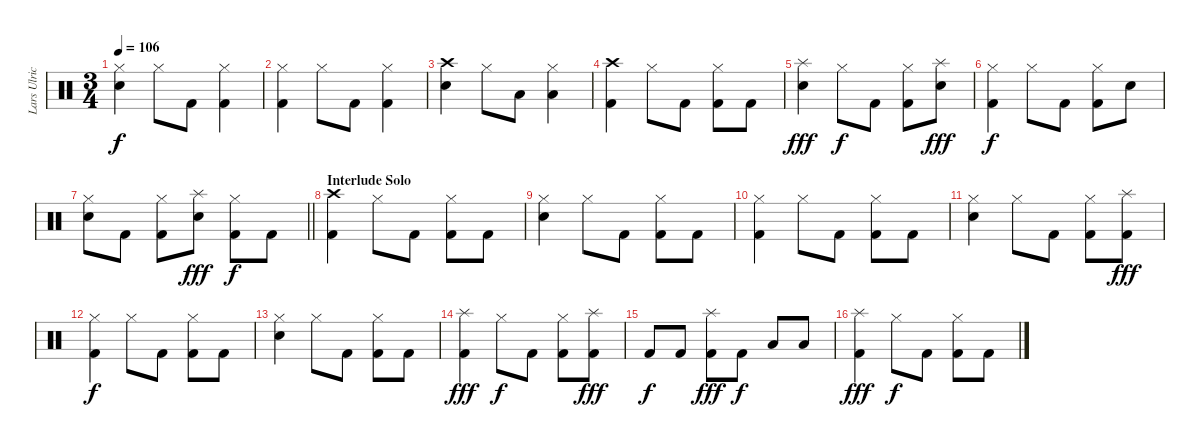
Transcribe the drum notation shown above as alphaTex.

\track ("Lars Ulrich" "Lars Ulric") {instrument percussion}
\staff {score}
\articulation defaults
\ts (3 4)
\tempo 106
\clef neutral
\ks c
("Hi-Hat (closed)" "Electric Snare (hit)").4{dy f} "Hi-Hat (closed)".8 "Kick (hit) 2".8 ("Hi-Hat (closed)" "Kick (hit) 2").4 |
("Hi-Hat (closed)" "Kick (hit) 2").4 "Hi-Hat (closed)".8 "Kick (hit) 2".8 ("Hi-Hat (closed)" "Kick (hit) 2").4 |
("Crash high (hit)" "Electric Snare (hit)").4 "Hi-Hat (closed)".8 "Low Tom (hit)".8 ("Hi-Hat (closed)" "Low Tom (hit)").4 |
("Crash high (hit)" "Kick (hit) 2").4 "Hi-Hat (closed)".8 "Kick (hit) 2".8 ("Hi-Hat (closed)" "Kick (hit) 2").8 "Kick (hit) 2".8 |
("Splash (hit)" "Electric Snare (hit)").4{dy fff} "Hi-Hat (closed)".8{dy f} "Kick (hit) 2".8 ("Hi-Hat (closed)" "Kick (hit) 2").8 ("Splash (hit)" "Electric Snare (hit)").8{dy fff} |
("Hi-Hat (closed)" "Kick (hit) 2").4{dy f} "Hi-Hat (closed)".8 "Kick (hit) 2".8 ("Hi-Hat (closed)" "Kick (hit) 2").8 "Electric Snare (hit)".8 |
\barLineRight lightlight
("Hi-Hat (closed)" "Electric Snare (hit)").8 "Kick (hit) 2".8 ("Hi-Hat (closed)" "Kick (hit) 2").8 ("Splash (hit)" "Electric Snare (hit)").8{dy fff} ("Hi-Hat (closed)" "Kick (hit) 2").8{dy f} "Kick (hit) 2".8 |
\section ("" "Interlude Solo")
("Crash high (hit)" "Kick (hit) 2").4 "Hi-Hat (closed)".8 "Kick (hit) 2".8 ("Hi-Hat (closed)" "Kick (hit) 2").8 "Kick (hit) 2".8 |
("Hi-Hat (closed)" "Electric Snare (hit)").4 "Hi-Hat (closed)".8 "Kick (hit) 2".8 ("Hi-Hat (closed)" "Kick (hit) 2").8 "Kick (hit) 2".8 |
("Hi-Hat (closed)" "Kick (hit) 2").4 "Hi-Hat (closed)".8 "Kick (hit) 2".8 ("Hi-Hat (closed)" "Kick (hit) 2").8 "Kick (hit) 2".8 |
("Hi-Hat (closed)" "Electric Snare (hit)").4 "Hi-Hat (closed)".8 "Kick (hit) 2".8 ("Hi-Hat (closed)" "Kick (hit) 2").8 ("Splash (hit)" "Kick (hit) 2").8{dy fff} |
("Hi-Hat (closed)" "Kick (hit) 2").4{dy f} "Hi-Hat (closed)".8 "Kick (hit) 2".8 ("Hi-Hat (closed)" "Kick (hit) 2").8 "Kick (hit) 2".8 |
("Hi-Hat (closed)" "Electric Snare (hit)").4 "Hi-Hat (closed)".8 "Kick (hit) 2".8 ("Hi-Hat (closed)" "Kick (hit) 2").8 "Kick (hit) 2".8 |
("Splash (hit)" "Kick (hit) 2").4{dy fff} "Hi-Hat (closed)".8{dy f} "Kick (hit) 2".8 ("Hi-Hat (closed)" "Kick (hit) 2").8 ("Splash (hit)" "Kick (hit) 2").8{dy fff} |
"Kick (hit) 2".8{dy f} "Kick (hit) 2".8 ("Splash (hit)" "Kick (hit) 2").8{dy fff} "Kick (hit) 2".8{dy f} "Low Tom (hit)".8 "Low Tom (hit)".8 |
("Splash (hit)" "Kick (hit) 2").4{dy fff} "Hi-Hat (closed)".8{dy f} "Kick (hit) 2".8 ("Hi-Hat (closed)" "Kick (hit) 2").8 "Kick (hit) 2".8
